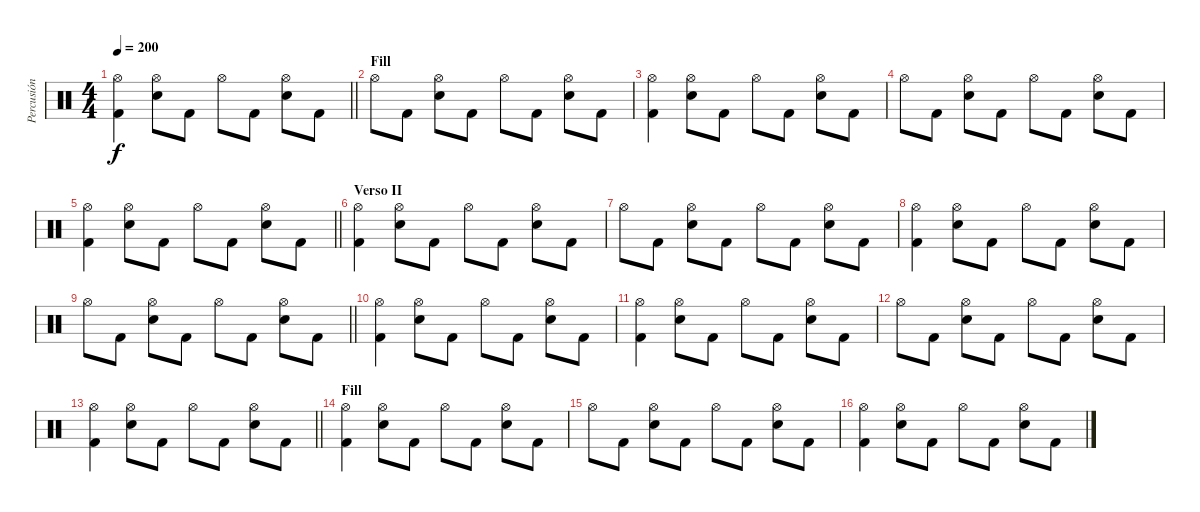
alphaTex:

\track ("Percusión" "Percusión") {instrument percussion}
\staff {score}
\articulation defaults
\ts (4 4)
\tempo 200
\clef neutral
\barLineRight lightlight
\ks c
("Hi-Hat (open)" "Kick (hit) 2").4{dy f} ("Hi-Hat (open)" "Electric Snare (hit)").8 "Kick (hit) 2".8 "Hi-Hat (open)".8 "Kick (hit) 2".8 ("Hi-Hat (open)" "Electric Snare (hit)").8 "Kick (hit) 2".8 |
\section ("" "Fill")
"Hi-Hat (open)".8 "Kick (hit) 2".8 ("Hi-Hat (open)" "Electric Snare (hit)").8 "Kick (hit) 2".8 "Hi-Hat (open)".8 "Kick (hit) 2".8 ("Hi-Hat (open)" "Electric Snare (hit)").8 "Kick (hit) 2".8 |
("Hi-Hat (open)" "Kick (hit) 2").4 ("Hi-Hat (open)" "Electric Snare (hit)").8 "Kick (hit) 2".8 "Hi-Hat (open)".8 "Kick (hit) 2".8 ("Hi-Hat (open)" "Electric Snare (hit)").8 "Kick (hit) 2".8 |
"Hi-Hat (open)".8 "Kick (hit) 2".8 ("Hi-Hat (open)" "Electric Snare (hit)").8 "Kick (hit) 2".8 "Hi-Hat (open)".8 "Kick (hit) 2".8 ("Hi-Hat (open)" "Electric Snare (hit)").8 "Kick (hit) 2".8 |
\barLineRight lightlight
("Hi-Hat (open)" "Kick (hit) 2").4 ("Hi-Hat (open)" "Electric Snare (hit)").8 "Kick (hit) 2".8 "Hi-Hat (open)".8 "Kick (hit) 2".8 ("Hi-Hat (open)" "Electric Snare (hit)").8 "Kick (hit) 2".8 |
\section ("" "Verso II")
("Hi-Hat (open)" "Kick (hit) 2").4 ("Hi-Hat (open)" "Electric Snare (hit)").8 "Kick (hit) 2".8 "Hi-Hat (open)".8 "Kick (hit) 2".8 ("Hi-Hat (open)" "Electric Snare (hit)").8 "Kick (hit) 2".8 |
"Hi-Hat (open)".8 "Kick (hit) 2".8 ("Hi-Hat (open)" "Electric Snare (hit)").8 "Kick (hit) 2".8 "Hi-Hat (open)".8 "Kick (hit) 2".8 ("Hi-Hat (open)" "Electric Snare (hit)").8 "Kick (hit) 2".8 |
("Hi-Hat (open)" "Kick (hit) 2").4 ("Hi-Hat (open)" "Electric Snare (hit)").8 "Kick (hit) 2".8 "Hi-Hat (open)".8 "Kick (hit) 2".8 ("Hi-Hat (open)" "Electric Snare (hit)").8 "Kick (hit) 2".8 |
\barLineRight lightlight "Hi-Hat (open)".8 "Kick (hit) 2".8
("Hi-Hat (open)" "Electric Snare (hit)").8 "Kick (hit) 2".8 "Hi-Hat (open)".8 "Kick (hit) 2".8 ("Hi-Hat (open)" "Electric Snare (hit)").8 "Kick (hit) 2".8 |
\section ("" "")
("Hi-Hat (open)" "Kick (hit) 2").4 ("Hi-Hat (open)" "Electric Snare (hit)").8 "Kick (hit) 2".8 "Hi-Hat (open)".8 "Kick (hit) 2".8 ("Hi-Hat (open)" "Electric Snare (hit)").8 "Kick (hit) 2".8 |
("Hi-Hat (open)" "Kick (hit) 2").4 ("Hi-Hat (open)" "Electric Snare (hit)").8 "Kick (hit) 2".8 "Hi-Hat (open)".8 "Kick (hit) 2".8 ("Hi-Hat (open)" "Electric Snare (hit)").8 "Kick (hit) 2".8 |
"Hi-Hat (open)".8 "Kick (hit) 2".8 ("Hi-Hat (open)" "Electric Snare (hit)").8 "Kick (hit) 2".8 "Hi-Hat (open)".8 "Kick (hit) 2".8 ("Hi-Hat (open)" "Electric Snare (hit)").8 "Kick (hit) 2".8 |
\barLineRight lightlight
("Hi-Hat (open)" "Kick (hit) 2").4 ("Hi-Hat (open)" "Electric Snare (hit)").8 "Kick (hit) 2".8 "Hi-Hat (open)".8 "Kick (hit) 2".8 ("Hi-Hat (open)" "Electric Snare (hit)").8 "Kick (hit) 2".8 |
\section ("" "Fill")
("Hi-Hat (open)" "Kick (hit) 2").4 ("Hi-Hat (open)" "Electric Snare (hit)").8 "Kick (hit) 2".8 "Hi-Hat (open)".8 "Kick (hit) 2".8 ("Hi-Hat (open)" "Electric Snare (hit)").8 "Kick (hit) 2".8 |
"Hi-Hat (open)".8 "Kick (hit) 2".8 ("Hi-Hat (open)" "Electric Snare (hit)").8 "Kick (hit) 2".8 "Hi-Hat (open)".8 "Kick (hit) 2".8 ("Hi-Hat (open)" "Electric Snare (hit)").8 "Kick (hit) 2".8 |
("Hi-Hat (open)" "Kick (hit) 2").4 ("Hi-Hat (open)" "Electric Snare (hit)").8 "Kick (hit) 2".8 "Hi-Hat (open)".8 "Kick (hit) 2".8 ("Hi-Hat (open)" "Electric Snare (hit)").8 "Kick (hit) 2".8
